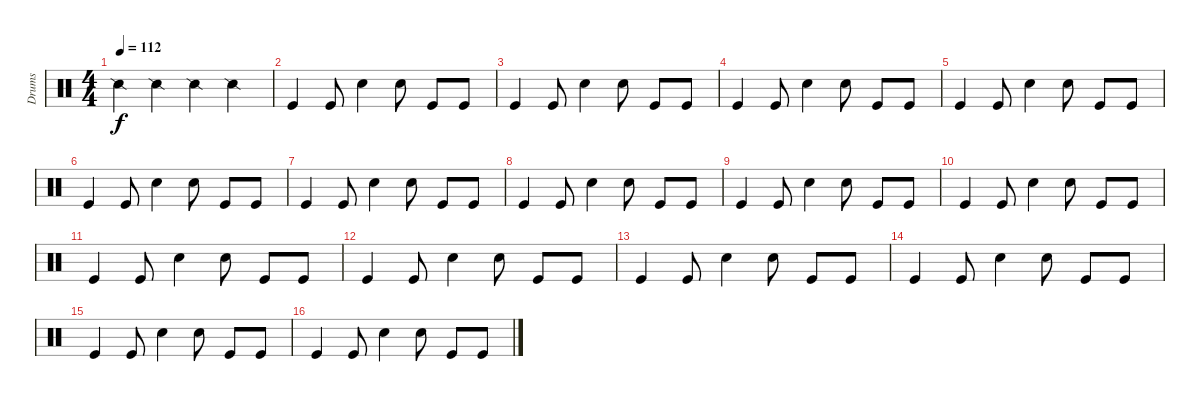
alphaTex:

\track ("Drums" "Drums") {instrument percussion}
\staff {score}
\articulation defaults
\ts (4 4)
\tempo 112
\clef neutral
\ks c "Snare (side stick) 2".4{dy f} "Snare (side stick) 2".4 "Snare (side stick) 2".4 "Snare (side stick) 2".4
|
"Kick (hit)".4 "Kick (hit)".8 "Snare (hit) 2".4 "Snare (hit) 2".8 "Kick (hit)".8 "Kick (hit)".8 |
"Kick (hit)".4 "Kick (hit)".8 "Snare (hit) 2".4 "Snare (hit) 2".8 "Kick (hit)".8 "Kick (hit)".8 |
"Kick (hit)".4 "Kick (hit)".8 "Snare (hit) 2".4 "Snare (hit) 2".8 "Kick (hit)".8 "Kick (hit)".8 |
"Kick (hit)".4 "Kick (hit)".8 "Snare (hit) 2".4 "Snare (hit) 2".8 "Kick (hit)".8 "Kick (hit)".8 |
"Kick (hit)".4 "Kick (hit)".8 "Snare (hit) 2".4 "Snare (hit) 2".8 "Kick (hit)".8 "Kick (hit)".8 |
"Kick (hit)".4 "Kick (hit)".8 "Snare (hit) 2".4 "Snare (hit) 2".8 "Kick (hit)".8 "Kick (hit)".8 |
"Kick (hit)".4 "Kick (hit)".8 "Snare (hit) 2".4 "Snare (hit) 2".8 "Kick (hit)".8 "Kick (hit)".8 |
"Kick (hit)".4 "Kick (hit)".8 "Snare (hit) 2".4 "Snare (hit) 2".8 "Kick (hit)".8 "Kick (hit)".8 |
"Kick (hit)".4 "Kick (hit)".8 "Snare (hit) 2".4 "Snare (hit) 2".8 "Kick (hit)".8 "Kick (hit)".8 |
"Kick (hit)".4 "Kick (hit)".8 "Snare (hit) 2".4 "Snare (hit) 2".8 "Kick (hit)".8 "Kick (hit)".8 |
"Kick (hit)".4 "Kick (hit)".8 "Snare (hit) 2".4 "Snare (hit) 2".8 "Kick (hit)".8 "Kick (hit)".8 |
"Kick (hit)".4 "Kick (hit)".8 "Snare (hit) 2".4 "Snare (hit) 2".8 "Kick (hit)".8 "Kick (hit)".8 |
"Kick (hit)".4 "Kick (hit)".8 "Snare (hit) 2".4 "Snare (hit) 2".8 "Kick (hit)".8 "Kick (hit)".8 |
"Kick (hit)".4 "Kick (hit)".8 "Snare (hit) 2".4 "Snare (hit) 2".8 "Kick (hit)".8 "Kick (hit)".8 |
"Kick (hit)".4 "Kick (hit)".8 "Snare (hit) 2".4 "Snare (hit) 2".8 "Kick (hit)".8 "Kick (hit)".8
